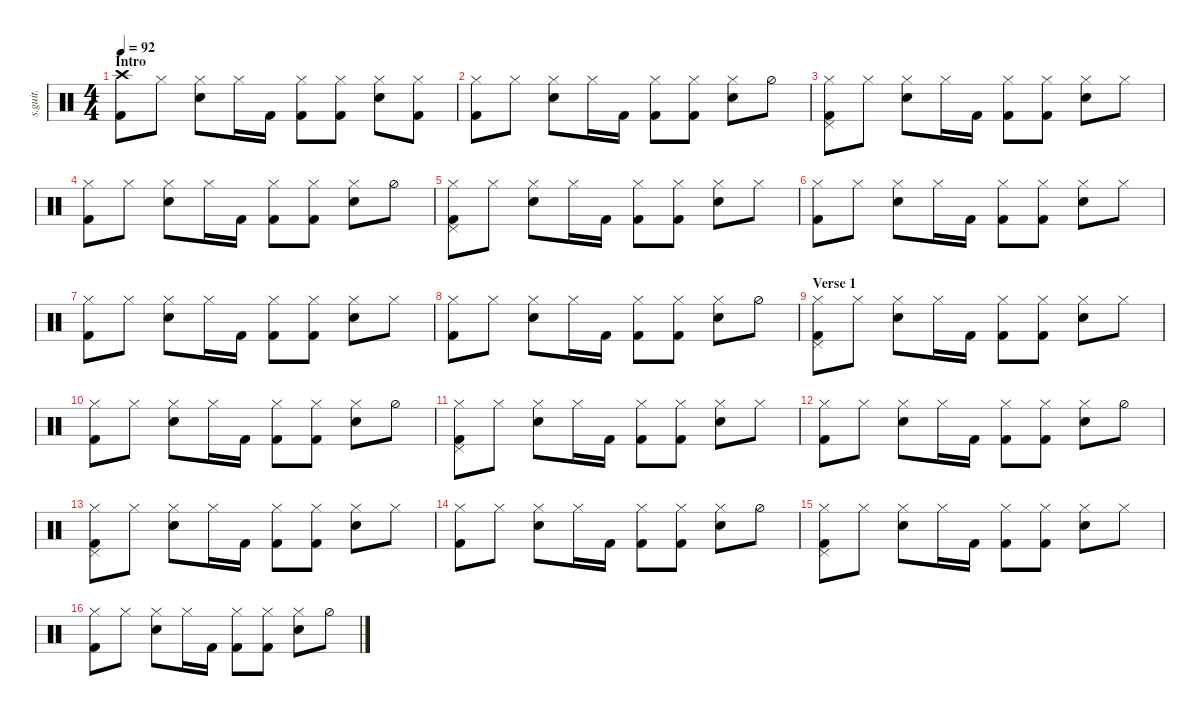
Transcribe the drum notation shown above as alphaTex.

\defaultSystemsLayout 4
\hideDynamics
\bracketExtendMode nobrackets
\track ("Phil Selway | DW Drum Kit | Drums" "s.guit.") {instrument percussion}
\staff {score}
\articulation defaults
\ts (4 4)
\beaming (8 2 2 2 2)
\section ("" "Intro")
\tempo 92
\clef neutral
\ks c
("Crash high (hit)" "Kick (hit) 2").8{dy f} "Hi-Hat (closed)".8 ("Hi-Hat (closed)" "Snare (hit) 2").8 "Hi-Hat (closed)".16 "Kick (hit) 2".16 ("Hi-Hat (closed)" "Kick (hit) 2").8 ("Hi-Hat (closed)" "Kick (hit) 2").8 ("Hi-Hat (closed)" "Snare (hit) 2").8 ("Hi-Hat (closed)" "Kick (hit) 2").8 |
("Hi-Hat (closed)" "Kick (hit) 2").8 "Hi-Hat (closed)".8 ("Hi-Hat (closed)" "Snare (hit) 2").8 "Hi-Hat (closed)".16 "Kick (hit) 2".16 ("Hi-Hat (closed)" "Kick (hit) 2").8 ("Hi-Hat (closed)" "Kick (hit) 2").8 ("Hi-Hat (closed)" "Snare (hit) 2").8 "Hi-Hat (half)".8 |
("Hi-Hat (closed)" "Kick (hit) 2" "Pedal Hi-Hat (hit)").8 "Hi-Hat (closed)".8 ("Hi-Hat (closed)" "Snare (hit) 2").8 "Hi-Hat (closed)".16 "Kick (hit) 2".16 ("Hi-Hat (closed)" "Kick (hit) 2").8 ("Hi-Hat (closed)" "Kick (hit) 2").8 ("Hi-Hat (closed)" "Snare (hit) 2").8 "Hi-Hat (closed)".8 |
("Hi-Hat (closed)" "Kick (hit) 2").8 "Hi-Hat (closed)".8 ("Hi-Hat (closed)" "Snare (hit) 2").8 "Hi-Hat (closed)".16 "Kick (hit) 2".16 ("Hi-Hat (closed)" "Kick (hit) 2").8 ("Hi-Hat (closed)" "Kick (hit) 2").8 ("Hi-Hat (closed)" "Snare (hit) 2").8 "Hi-Hat (half)".8 |
("Hi-Hat (closed)" "Kick (hit) 2" "Pedal Hi-Hat (hit)").8 "Hi-Hat (closed)".8 ("Hi-Hat (closed)" "Snare (hit) 2").8 "Hi-Hat (closed)".16 "Kick (hit) 2".16 ("Hi-Hat (closed)" "Kick (hit) 2").8 ("Hi-Hat (closed)" "Kick (hit) 2").8 ("Hi-Hat (closed)" "Snare (hit) 2").8 "Hi-Hat (closed)".8 |
("Hi-Hat (closed)" "Kick (hit) 2").8 "Hi-Hat (closed)".8 ("Hi-Hat (closed)" "Snare (hit) 2").8 "Hi-Hat (closed)".16 "Kick (hit) 2".16 ("Hi-Hat (closed)" "Kick (hit) 2").8 ("Hi-Hat (closed)" "Kick (hit) 2").8 ("Hi-Hat (closed)" "Snare (hit) 2").8 "Hi-Hat (closed)".8 |
("Hi-Hat (closed)" "Kick (hit) 2").8 "Hi-Hat (closed)".8 ("Hi-Hat (closed)" "Snare (hit) 2").8 "Hi-Hat (closed)".16 "Kick (hit) 2".16 ("Hi-Hat (closed)" "Kick (hit) 2").8 ("Hi-Hat (closed)" "Kick (hit) 2").8 ("Hi-Hat (closed)" "Snare (hit) 2").8 "Hi-Hat (closed)".8 |
("Hi-Hat (closed)" "Kick (hit) 2").8 "Hi-Hat (closed)".8 ("Hi-Hat (closed)" "Snare (hit) 2").8 "Hi-Hat (closed)".16 "Kick (hit) 2".16 ("Hi-Hat (closed)" "Kick (hit) 2").8 ("Hi-Hat (closed)" "Kick (hit) 2").8 ("Hi-Hat (closed)" "Snare (hit) 2").8 "Hi-Hat (half)".8 |
\section ("" "Verse 1")
("Hi-Hat (closed)" "Kick (hit) 2" "Pedal Hi-Hat (hit)").8 "Hi-Hat (closed)".8 ("Hi-Hat (closed)" "Snare (hit) 2").8 "Hi-Hat (closed)".16 "Kick (hit) 2".16 ("Hi-Hat (closed)" "Kick (hit) 2").8 ("Hi-Hat (closed)" "Kick (hit) 2").8 ("Hi-Hat (closed)" "Snare (hit) 2").8 "Hi-Hat (closed)".8 |
("Hi-Hat (closed)" "Kick (hit) 2").8 "Hi-Hat (closed)".8 ("Hi-Hat (closed)" "Snare (hit) 2").8 "Hi-Hat (closed)".16 "Kick (hit) 2".16 ("Hi-Hat (closed)" "Kick (hit) 2").8 ("Hi-Hat (closed)" "Kick (hit) 2").8 ("Hi-Hat (closed)" "Snare (hit) 2").8 "Hi-Hat (half)".8 |
("Hi-Hat (closed)" "Kick (hit) 2" "Pedal Hi-Hat (hit)").8 "Hi-Hat (closed)".8 ("Hi-Hat (closed)" "Snare (hit) 2").8 "Hi-Hat (closed)".16 "Kick (hit) 2".16 ("Hi-Hat (closed)" "Kick (hit) 2").8 ("Hi-Hat (closed)" "Kick (hit) 2").8 ("Hi-Hat (closed)" "Snare (hit) 2").8 "Hi-Hat (closed)".8 |
("Hi-Hat (closed)" "Kick (hit) 2").8 "Hi-Hat (closed)".8 ("Hi-Hat (closed)" "Snare (hit) 2").8 "Hi-Hat (closed)".16 "Kick (hit) 2".16 ("Hi-Hat (closed)" "Kick (hit) 2").8 ("Hi-Hat (closed)" "Kick (hit) 2").8 ("Hi-Hat (closed)" "Snare (hit) 2").8 "Hi-Hat (half)".8 |
("Hi-Hat (closed)" "Kick (hit) 2" "Pedal Hi-Hat (hit)").8 "Hi-Hat (closed)".8 ("Hi-Hat (closed)" "Snare (hit) 2").8 "Hi-Hat (closed)".16 "Kick (hit) 2".16 ("Hi-Hat (closed)" "Kick (hit) 2").8 ("Hi-Hat (closed)" "Kick (hit) 2").8 ("Hi-Hat (closed)" "Snare (hit) 2").8 "Hi-Hat (closed)".8 |
("Hi-Hat (closed)" "Kick (hit) 2").8 "Hi-Hat (closed)".8 ("Hi-Hat (closed)" "Snare (hit) 2").8 "Hi-Hat (closed)".16 "Kick (hit) 2".16 ("Hi-Hat (closed)" "Kick (hit) 2").8 ("Hi-Hat (closed)" "Kick (hit) 2").8 ("Hi-Hat (closed)" "Snare (hit) 2").8 "Hi-Hat (half)".8 |
("Hi-Hat (closed)" "Kick (hit) 2" "Pedal Hi-Hat (hit)").8 "Hi-Hat (closed)".8 ("Hi-Hat (closed)" "Snare (hit) 2").8 "Hi-Hat (closed)".16 "Kick (hit) 2".16 ("Hi-Hat (closed)" "Kick (hit) 2").8 ("Hi-Hat (closed)" "Kick (hit) 2").8 ("Hi-Hat (closed)" "Snare (hit) 2").8 "Hi-Hat (closed)".8 |
("Hi-Hat (closed)" "Kick (hit) 2").8 "Hi-Hat (closed)".8 ("Hi-Hat (closed)" "Snare (hit) 2").8 "Hi-Hat (closed)".16 "Kick (hit) 2".16 ("Hi-Hat (closed)" "Kick (hit) 2").8 ("Hi-Hat (closed)" "Kick (hit) 2").8 ("Hi-Hat (closed)" "Snare (hit) 2").8 "Hi-Hat (half)".8
